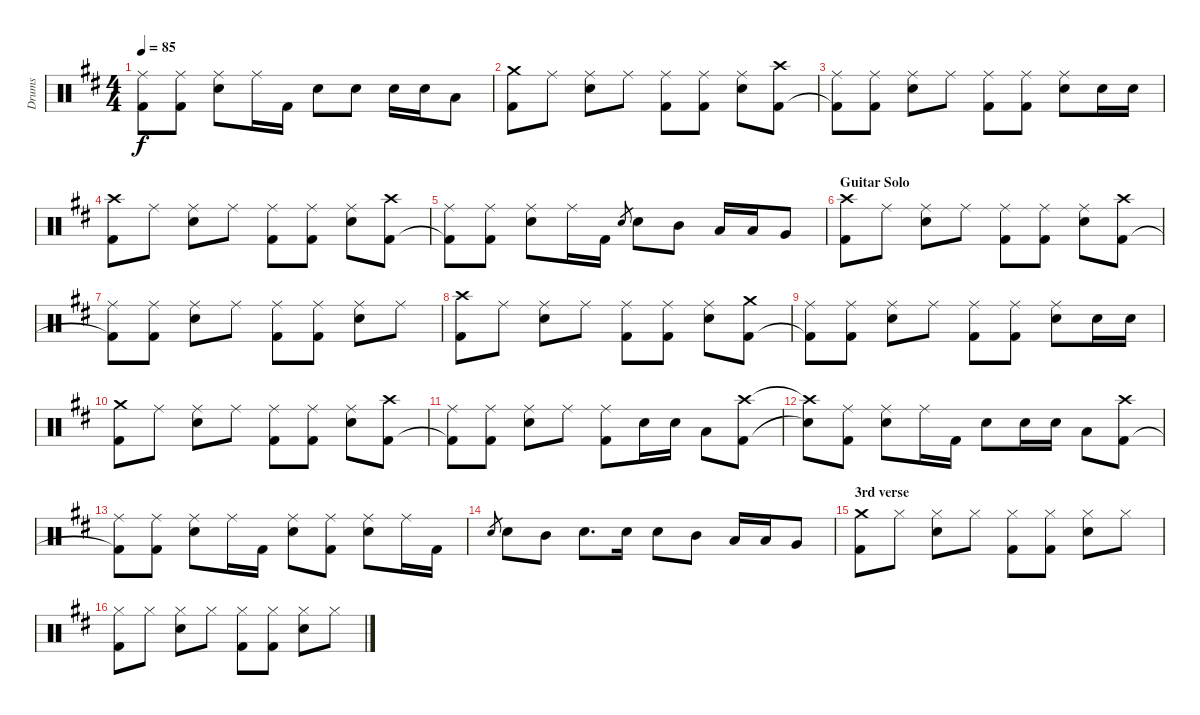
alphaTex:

\track ("Drums" "Drums") {instrument percussion}
\staff {score}
\articulation defaults
\ts (4 4)
\tempo 85
\clef neutral
\ks d
("Ride (middle)" "Kick (hit) 2"{t}).8{dy f} ("Ride (middle)" "Kick (hit) 2").8 ("Ride (middle)" "Snare (hit) 2").8 "Ride (middle)".16 "Kick (hit) 2".16 "Snare (hit) 2".8 "Snare (hit) 2".8 "Snare (hit) 2".16 "Snare (hit) 2".16 "Low Tom (hit)".8 |
("Crash medium (hit)" "Kick (hit) 2").8 "Ride (middle)".8 ("Ride (middle)" "Snare (hit) 2").8 "Ride (middle)".8 ("Ride (middle)" "Kick (hit) 2").8 ("Ride (middle)" "Kick (hit) 2").8 ("Ride (middle)" "Snare (hit) 2").8 ("Crash high (hit)" "Kick (hit) 2").8 |
("Ride (middle)" "Kick (hit) 2"{t}).8 ("Ride (middle)" "Kick (hit) 2").8 ("Ride (middle)" "Snare (hit) 2").8 "Ride (middle)".8 ("Ride (middle)" "Kick (hit) 2").8 ("Ride (middle)" "Kick (hit) 2").8 ("Ride (middle)" "Snare (hit) 2").8 "Snare (hit) 2".16 "Snare (hit) 2".16 |
("Crash high (hit)" "Kick (hit) 2").8 "Ride (middle)".8 ("Ride (middle)" "Snare (hit) 2").8 "Ride (middle)".8 ("Ride (middle)" "Kick (hit) 2").8 ("Ride (middle)" "Kick (hit) 2").8 ("Ride (middle)" "Snare (hit) 2").8 ("Crash high (hit)" "Kick (hit) 2").8 |
("Ride (middle)" "Kick (hit) 2"{t}).8 ("Ride (middle)" "Kick (hit) 2").8 ("Ride (middle)" "Snare (hit) 2").8 "Ride (middle)".16 "Kick (hit) 2".16 "Snare (hit) 2".8{gr} "Snare (hit) 2".8 "Mid Tom (hit)".8 "Low Tom (hit)".16 "Low Tom (hit)".16 "Very Low Tom (hit)".8 |
\section ("" "Guitar Solo")
("Crash high (hit)" "Kick (hit) 2").8 "Ride (middle)".8 ("Ride (middle)" "Snare (hit) 2").8 "Ride (middle)".8 ("Ride (middle)" "Kick (hit) 2").8 ("Ride (middle)" "Kick (hit) 2").8 ("Ride (middle)" "Snare (hit) 2").8 ("Crash high (hit)" "Kick (hit) 2").8 |
("Ride (middle)" "Kick (hit) 2"{t}).8 ("Ride (middle)" "Kick (hit) 2").8 ("Ride (middle)" "Snare (hit) 2").8 "Ride (middle)".8 ("Ride (middle)" "Kick (hit) 2").8 ("Ride (middle)" "Kick (hit) 2").8 ("Ride (middle)" "Snare (hit) 2").8 "Ride (middle)".8 |
("Crash high (hit)" "Kick (hit) 2").8 "Ride (middle)".8 ("Ride (middle)" "Snare (hit) 2").8 "Ride (middle)".8 ("Ride (middle)" "Kick (hit) 2").8 ("Ride (middle)" "Kick (hit) 2").8 ("Ride (middle)" "Snare (hit) 2").8 ("Crash medium (hit)" "Kick (hit) 2").8 |
("Ride (middle)" "Kick (hit) 2"{t}).8 ("Ride (middle)" "Kick (hit) 2").8 ("Ride (middle)" "Snare (hit) 2").8 "Ride (middle)".8 ("Ride (middle)" "Kick (hit) 2").8 ("Ride (middle)" "Kick (hit) 2").8 ("Ride (middle)" "Snare (hit) 2").8 "Snare (hit) 2".16 "Snare (hit) 2".16 |
("Crash medium (hit)" "Kick (hit) 2").8 "Ride (middle)".8 ("Ride (middle)" "Snare (hit) 2").8 "Ride (middle)".8 ("Ride (middle)" "Kick (hit) 2").8 ("Ride (middle)" "Kick (hit) 2").8 ("Ride (middle)" "Snare (hit) 2").8 ("Crash high (hit)" "Kick (hit) 2").8 |
("Ride (middle)" "Kick (hit) 2"{t}).8 ("Ride (middle)" "Kick (hit) 2").8 ("Ride (middle)" "Snare (hit) 2").8 "Ride (middle)".8 ("Ride (middle)" "Kick (hit) 2").8 "Snare (hit) 2".16 "Snare (hit) 2".16 "Low Tom (hit)".8 ("Crash high (hit)" "Kick (hit) 2").8 |
("Crash high (hit)"{t} "Snare (hit)"{t}).8 ("Ride (middle)" "Kick (hit) 2").8 ("Ride (middle)" "Snare (hit) 2").8 "Ride (middle)".16 "Kick (hit) 2".16 "Snare (hit) 2".8 "Snare (hit) 2".16 "Snare (hit) 2".16 "Low Tom (hit)".8 ("Crash high (hit)" "Kick (hit) 2").8 |
("Ride (middle)" "Kick (hit) 2"{t}).8 ("Ride (middle)" "Kick (hit) 2").8 ("Ride (middle)" "Snare (hit) 2").8 "Ride (middle)".16 "Kick (hit) 2".16 ("Ride (middle)" "Snare (hit) 2").8 ("Ride (middle)" "Kick (hit) 2").8 ("Ride (middle)" "Snare (hit) 2").8 "Ride (middle)".16 "Kick (hit) 2".16 |
"Snare (hit) 2".8{gr} "Snare (hit) 2".8 "Mid Tom (hit)".8 "Snare (hit) 2".8{d} "Snare (hit) 2".16 "Snare (hit) 2".8 "Mid Tom (hit)".8 "Low Tom (hit)".16 "Low Tom (hit)".16 "Very Low Tom (hit)".8 |
\section ("" "3rd verse")
("Crash medium (hit)" "Kick (hit) 2").8 "Hi-Hat (closed)".8 ("Hi-Hat (closed)" "Snare (hit) 2").8 "Hi-Hat (closed)".8 ("Hi-Hat (closed)" "Kick (hit) 2").8 ("Hi-Hat (closed)" "Kick (hit) 2").8 ("Hi-Hat (closed)" "Snare (hit) 2").8 "Hi-Hat (closed)".8 |
("Hi-Hat (closed)" "Kick (hit) 2").8 "Hi-Hat (closed)".8 ("Hi-Hat (closed)" "Snare (hit) 2").8 "Hi-Hat (closed)".8 ("Hi-Hat (closed)" "Kick (hit) 2").8 ("Hi-Hat (closed)" "Kick (hit) 2").8 ("Hi-Hat (closed)" "Snare (hit) 2").8 "Hi-Hat (closed)".8
